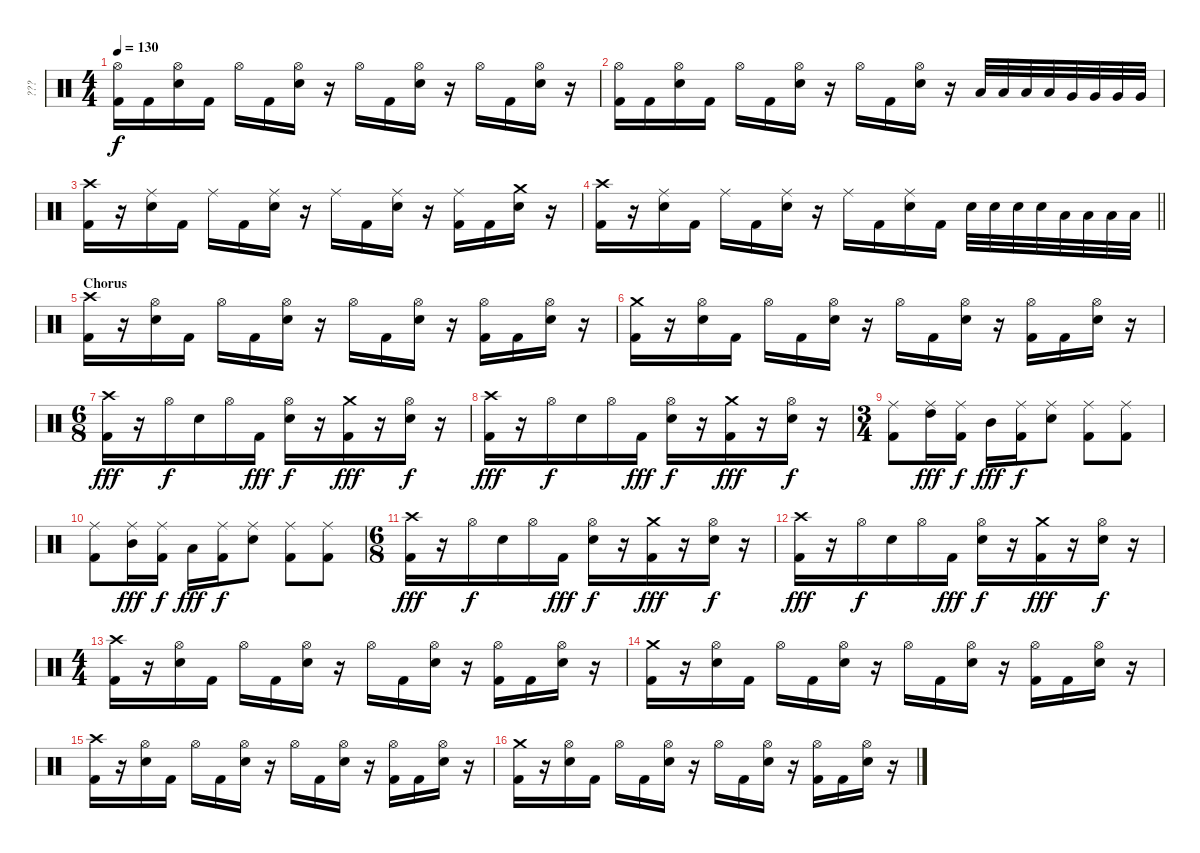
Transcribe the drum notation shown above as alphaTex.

\track ("???" "???") {instrument percussion}
\staff {score}
\articulation defaults
\ts (4 4)
\tempo 130
\clef neutral
\ks c
("Hi-Hat (open)" "Kick (hit) 2").16{dy f} "Kick (hit) 2".16 ("Hi-Hat (open)" "Electric Snare (hit)").16 "Kick (hit) 2".16 "Hi-Hat (open)".16 "Kick (hit) 2".16 ("Hi-Hat (open)" "Electric Snare (hit)").16 r.16 "Hi-Hat (open)".16 "Kick (hit) 2".16 ("Hi-Hat (open)" "Electric Snare (hit)").16 r.16 "Hi-Hat (open)".16 "Kick (hit) 2".16 ("Hi-Hat (open)" "Electric Snare (hit)").16 r.16 |
("Hi-Hat (open)" "Kick (hit) 2").16 "Kick (hit) 2".16 ("Hi-Hat (open)" "Electric Snare (hit)").16 "Kick (hit) 2".16 "Hi-Hat (open)".16 "Kick (hit) 2".16 ("Hi-Hat (open)" "Electric Snare (hit)").16 r.16 "Hi-Hat (open)".16 "Kick (hit) 2".16 ("Hi-Hat (open)" "Electric Snare (hit)").16 r.16 "Low Tom (hit)".32 "Low Tom (hit)".32 "Low Tom (hit)".32 "Low Tom (hit)".32 "Very Low Tom (hit)".32 "Very Low Tom (hit)".32 "Very Low Tom (hit)".32 "Very Low Tom (hit)".32 |
("Crash high (hit)" "Kick (hit) 2").16 r.16 ("Ride (middle)" "Electric Snare (hit)").16 "Kick (hit) 2".16 "Ride (middle)".16 "Kick (hit) 2".16 ("Ride (middle)" "Electric Snare (hit)").16 r.16 "Ride (middle)".16 "Kick (hit) 2".16 ("Ride (middle)" "Electric Snare (hit)").16 r.16 ("Ride (middle)" "Kick (hit) 2").16 "Kick (hit) 2".16 ("Crash medium (hit)" "Electric Snare (hit)").16 r.16 |
\barLineRight lightlight
("Crash high (hit)" "Kick (hit) 2").16 r.16 ("Ride (middle)" "Electric Snare (hit)").16 "Kick (hit) 2".16 "Ride (middle)".16 "Kick (hit) 2".16 ("Ride (middle)" "Electric Snare (hit)").16 r.16 "Ride (middle)".16 "Kick (hit) 2".16 ("Ride (middle)" "Electric Snare (hit)").16 "Kick (hit) 2".16 "Electric Snare (hit)".32 "Electric Snare (hit)".32 "Electric Snare (hit)".32 "Electric Snare (hit)".32 "Low Tom (hit)".32 "Low Tom (hit)".32 "Low Tom (hit)".32 "Low Tom (hit)".32 |
\section ("" "Chorus")
("Crash high (hit)" "Kick (hit) 2").16 r.16 ("Hi-Hat (open)" "Electric Snare (hit)").16 "Kick (hit) 2".16 "Hi-Hat (open)".16 "Kick (hit) 2".16 ("Hi-Hat (open)" "Electric Snare (hit)").16 r.16 "Hi-Hat (open)".16 "Kick (hit) 2".16 ("Hi-Hat (open)" "Electric Snare (hit)").16 r.16 ("Hi-Hat (open)" "Kick (hit) 2").16 "Kick (hit) 2".16 ("Hi-Hat (open)" "Electric Snare (hit)").16 r.16 |
("Crash medium (hit)" "Kick (hit) 2").16 r.16 ("Hi-Hat (open)" "Electric Snare (hit)").16 "Kick (hit) 2".16 "Hi-Hat (open)".16 "Kick (hit) 2".16 ("Hi-Hat (open)" "Electric Snare (hit)").16 r.16 "Hi-Hat (open)".16 "Kick (hit) 2".16 ("Hi-Hat (open)" "Electric Snare (hit)").16 r.16 ("Hi-Hat (open)" "Kick (hit) 2").16 "Kick (hit) 2".16 ("Hi-Hat (open)" "Electric Snare (hit)").16 r.16 |
\ts (6 8)
("Crash high (hit)" "Kick (hit) 2").16{dy fff} r.16 "Hi-Hat (open)".16{dy f} "Electric Snare (hit)".16 "Hi-Hat (open)".16 "Kick (hit) 2".16{dy fff} ("Hi-Hat (open)" "Electric Snare (hit)").16{dy f} r.16 ("Crash medium (hit)" "Kick (hit) 2").16{dy fff} r.16 ("Hi-Hat (open)" "Electric Snare (hit)").16{dy f} r.16 |
("Crash high (hit)" "Kick (hit) 2").16{dy fff} r.16 "Hi-Hat (open)".16{dy f} "Electric Snare (hit)".16 "Hi-Hat (open)".16 "Kick (hit) 2".16{dy fff} ("Hi-Hat (open)" "Electric Snare (hit)").16{dy f} r.16 ("Crash medium (hit)" "Kick (hit) 2").16{dy fff} r.16 ("Hi-Hat (open)" "Electric Snare (hit)").16{dy f} r.16 |
\ts (3 4)
("Ride (middle)" "Kick (hit) 2").8 ("Ride (middle)" "High Tom (hit)").16{dy fff} ("Ride (middle)" "Kick (hit) 2").16{dy f} "Mid Tom (hit)".16{dy fff} ("Ride (middle)" "Kick (hit) 2").16{dy f} ("Ride (middle)" "Electric Snare (hit)").8 ("Ride (middle)" "Kick (hit) 2").8 ("Ride (middle)" "Kick (hit) 2").8 |
("Ride (middle)" "Kick (hit) 2").8 ("Ride (middle)" "Mid Tom (hit)").16{dy fff} ("Ride (middle)" "Kick (hit) 2").16{dy f} "Low Tom (hit)".16{dy fff} ("Ride (middle)" "Kick (hit) 2").16{dy f} ("Ride (middle)" "Electric Snare (hit)").8 ("Ride (middle)" "Kick (hit) 2").8 ("Ride (middle)" "Kick (hit) 2").8 |
\ts (6 8)
("Crash high (hit)" "Kick (hit) 2").16{dy fff} r.16 "Hi-Hat (open)".16{dy f} "Electric Snare (hit)".16 "Hi-Hat (open)".16 "Kick (hit) 2".16{dy fff} ("Hi-Hat (open)" "Electric Snare (hit)").16{dy f} r.16 ("Crash medium (hit)" "Kick (hit) 2").16{dy fff} r.16 ("Hi-Hat (open)" "Electric Snare (hit)").16{dy f} r.16 |
("Crash high (hit)" "Kick (hit) 2").16{dy fff} r.16 "Hi-Hat (open)".16{dy f} "Electric Snare (hit)".16 "Hi-Hat (open)".16 "Kick (hit) 2".16{dy fff} ("Hi-Hat (open)" "Electric Snare (hit)").16{dy f} r.16 ("Crash medium (hit)" "Kick (hit) 2").16{dy fff} r.16 ("Hi-Hat (open)" "Electric Snare (hit)").16{dy f} r.16 |
\ts (4 4)
("Crash high (hit)" "Kick (hit) 2").16 r.16 ("Hi-Hat (open)" "Electric Snare (hit)").16 "Kick (hit) 2".16 "Hi-Hat (open)".16 "Kick (hit) 2".16 ("Hi-Hat (open)" "Electric Snare (hit)").16 r.16 "Hi-Hat (open)".16 "Kick (hit) 2".16 ("Hi-Hat (open)" "Electric Snare (hit)").16 r.16 ("Hi-Hat (open)" "Kick (hit) 2").16 "Kick (hit) 2".16 ("Hi-Hat (open)" "Electric Snare (hit)").16 r.16 |
("Crash medium (hit)" "Kick (hit) 2").16 r.16 ("Hi-Hat (open)" "Electric Snare (hit)").16 "Kick (hit) 2".16 "Hi-Hat (open)".16 "Kick (hit) 2".16 ("Hi-Hat (open)" "Electric Snare (hit)").16 r.16 "Hi-Hat (open)".16 "Kick (hit) 2".16 ("Hi-Hat (open)" "Electric Snare (hit)").16 r.16 ("Hi-Hat (open)" "Kick (hit) 2").16 "Kick (hit) 2".16 ("Hi-Hat (open)" "Electric Snare (hit)").16 r.16 |
("Crash high (hit)" "Kick (hit) 2").16 r.16 ("Hi-Hat (open)" "Electric Snare (hit)").16 "Kick (hit) 2".16 "Hi-Hat (open)".16 "Kick (hit) 2".16 ("Hi-Hat (open)" "Electric Snare (hit)").16 r.16 "Hi-Hat (open)".16 "Kick (hit) 2".16 ("Hi-Hat (open)" "Electric Snare (hit)").16 r.16 ("Hi-Hat (open)" "Kick (hit) 2").16 "Kick (hit) 2".16 ("Hi-Hat (open)" "Electric Snare (hit)").16 r.16 |
("Crash medium (hit)" "Kick (hit) 2").16 r.16 ("Hi-Hat (open)" "Electric Snare (hit)").16 "Kick (hit) 2".16 "Hi-Hat (open)".16 "Kick (hit) 2".16 ("Hi-Hat (open)" "Electric Snare (hit)").16 r.16 "Hi-Hat (open)".16 "Kick (hit) 2".16 ("Hi-Hat (open)" "Electric Snare (hit)").16 r.16 ("Hi-Hat (open)" "Kick (hit) 2").16 "Kick (hit) 2".16 ("Hi-Hat (open)" "Electric Snare (hit)").16 r.16
